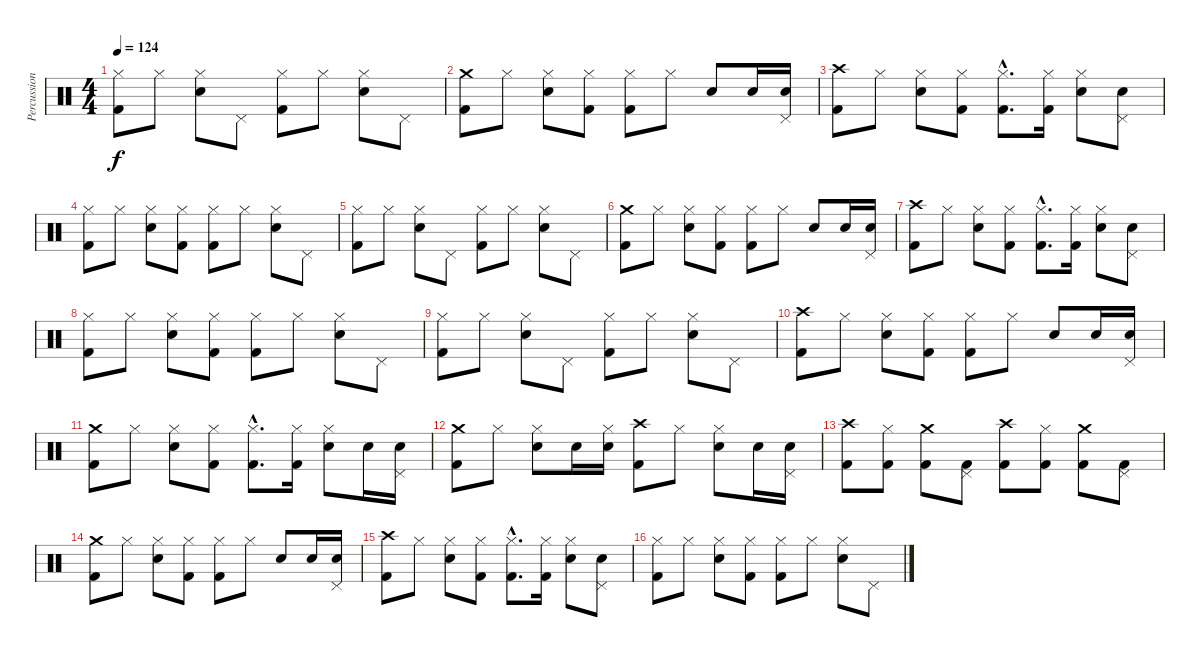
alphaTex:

\track ("Percussions" "Percussion") {instrument percussion}
\staff {score}
\articulation defaults
\ts (4 4)
\tempo 124
\clef neutral
\ks c
("Hi-Hat (closed)" "Kick (hit) 2").8{dy f} "Hi-Hat (closed)".8 ("Hi-Hat (closed)" "Electric Snare (hit)").8 "Pedal Hi-Hat (hit)".8 ("Hi-Hat (closed)" "Kick (hit) 2").8 "Hi-Hat (closed)".8 ("Hi-Hat (closed)" "Electric Snare (hit)").8 "Pedal Hi-Hat (hit)".8 |
("Crash medium (hit)" "Kick (hit) 2").8 "Hi-Hat (closed)".8 ("Hi-Hat (closed)" "Electric Snare (hit)").8 ("Hi-Hat (closed)" "Kick (hit) 2").8 ("Hi-Hat (closed)" "Kick (hit) 2").8 "Hi-Hat (closed)".8 "Electric Snare (hit)".8 "Electric Snare (hit)".16 ("Pedal Hi-Hat (hit)" "Electric Snare (hit)").16 |
("Crash high (hit)" "Kick (hit) 2").8 "Hi-Hat (closed)".8 ("Hi-Hat (closed)" "Electric Snare (hit)").8 ("Hi-Hat (closed)" "Kick (hit) 2").8 ("Hi-Hat (closed)"{hac} "Kick (hit) 2"{hac}).8{d} ("Hi-Hat (closed)" "Kick (hit) 2").16 ("Hi-Hat (closed)" "Electric Snare (hit)").8 ("Pedal Hi-Hat (hit)" "Electric Snare (hit)").8 |
("Hi-Hat (closed)" "Kick (hit) 2").8 "Hi-Hat (closed)".8 ("Hi-Hat (closed)" "Electric Snare (hit)").8 ("Hi-Hat (closed)" "Kick (hit) 2").8 ("Hi-Hat (closed)" "Kick (hit) 2").8 "Hi-Hat (closed)".8 ("Hi-Hat (closed)" "Electric Snare (hit)").8 "Pedal Hi-Hat (hit)".8 |
("Hi-Hat (closed)" "Kick (hit) 2").8 "Hi-Hat (closed)".8 ("Hi-Hat (closed)" "Electric Snare (hit)").8 "Pedal Hi-Hat (hit)".8 ("Hi-Hat (closed)" "Kick (hit) 2").8 "Hi-Hat (closed)".8 ("Hi-Hat (closed)" "Electric Snare (hit)").8 "Pedal Hi-Hat (hit)".8 |
("Crash medium (hit)" "Kick (hit) 2").8 "Hi-Hat (closed)".8 ("Hi-Hat (closed)" "Electric Snare (hit)").8 ("Hi-Hat (closed)" "Kick (hit) 2").8 ("Hi-Hat (closed)" "Kick (hit) 2").8 "Hi-Hat (closed)".8 "Electric Snare (hit)".8 "Electric Snare (hit)".16 ("Pedal Hi-Hat (hit)" "Electric Snare (hit)").16 |
("Crash high (hit)" "Kick (hit) 2").8 "Hi-Hat (closed)".8 ("Hi-Hat (closed)" "Electric Snare (hit)").8 ("Hi-Hat (closed)" "Kick (hit) 2").8 ("Hi-Hat (closed)"{hac} "Kick (hit) 2"{hac}).8{d} ("Hi-Hat (closed)" "Kick (hit) 2").16 ("Hi-Hat (closed)" "Electric Snare (hit)").8 ("Pedal Hi-Hat (hit)" "Electric Snare (hit)").8 |
("Hi-Hat (closed)" "Kick (hit) 2").8 "Hi-Hat (closed)".8 ("Hi-Hat (closed)" "Electric Snare (hit)").8 ("Hi-Hat (closed)" "Kick (hit) 2").8 ("Hi-Hat (closed)" "Kick (hit) 2").8 "Hi-Hat (closed)".8 ("Hi-Hat (closed)" "Electric Snare (hit)").8 "Pedal Hi-Hat (hit)".8 |
("Hi-Hat (closed)" "Kick (hit) 2").8 "Hi-Hat (closed)".8 ("Hi-Hat (closed)" "Electric Snare (hit)").8 "Pedal Hi-Hat (hit)".8 ("Hi-Hat (closed)" "Kick (hit) 2").8 "Hi-Hat (closed)".8 ("Hi-Hat (closed)" "Electric Snare (hit)").8 "Pedal Hi-Hat (hit)".8 |
("Crash high (hit)" "Kick (hit) 2").8 "Hi-Hat (closed)".8 ("Hi-Hat (closed)" "Electric Snare (hit)").8 ("Hi-Hat (closed)" "Kick (hit) 2").8 ("Hi-Hat (closed)" "Kick (hit) 2").8 "Hi-Hat (closed)".8 "Electric Snare (hit)".8 "Electric Snare (hit)".16 ("Pedal Hi-Hat (hit)" "Electric Snare (hit)").16 |
("Crash medium (hit)" "Kick (hit) 2").8 "Hi-Hat (closed)".8 ("Hi-Hat (closed)" "Electric Snare (hit)").8 ("Hi-Hat (closed)" "Kick (hit) 2").8 ("Hi-Hat (closed)"{hac} "Kick (hit) 2"{hac}).8{d} ("Hi-Hat (closed)" "Kick (hit) 2").16 ("Hi-Hat (closed)" "Electric Snare (hit)").8 "Electric Snare (hit)".16 ("Pedal Hi-Hat (hit)" "Electric Snare (hit)").16 |
("Crash medium (hit)" "Kick (hit) 2").8 "Hi-Hat (closed)".8 ("Hi-Hat (closed)" "Electric Snare (hit)").8 "Electric Snare (hit)".16 ("Hi-Hat (closed)" "Electric Snare (hit)").16 ("Crash high (hit)" "Kick (hit) 2").8 "Hi-Hat (closed)".8 ("Hi-Hat (closed)" "Electric Snare (hit)").8 "Electric Snare (hit)".16 ("Pedal Hi-Hat (hit)" "Electric Snare (hit)").16 |
("Crash high (hit)" "Kick (hit) 2").8 ("Hi-Hat (closed)" "Kick (hit) 2").8 ("Crash medium (hit)" "Kick (hit) 2").8 ("Pedal Hi-Hat (hit)" "Kick (hit) 2").8 ("Crash high (hit)" "Kick (hit) 2").8 ("Hi-Hat (closed)" "Kick (hit) 2").8 ("Crash medium (hit)" "Kick (hit) 2").8 ("Pedal Hi-Hat (hit)" "Kick (hit) 2").8 |
("Crash medium (hit)" "Kick (hit) 2").8 "Hi-Hat (closed)".8 ("Hi-Hat (closed)" "Electric Snare (hit)").8 ("Hi-Hat (closed)" "Kick (hit) 2").8 ("Hi-Hat (closed)" "Kick (hit) 2").8 "Hi-Hat (closed)".8 "Electric Snare (hit)".8 "Electric Snare (hit)".16 ("Pedal Hi-Hat (hit)" "Electric Snare (hit)").16 |
("Crash high (hit)" "Kick (hit) 2").8 "Hi-Hat (closed)".8 ("Hi-Hat (closed)" "Electric Snare (hit)").8 ("Hi-Hat (closed)" "Kick (hit) 2").8 ("Hi-Hat (closed)"{hac} "Kick (hit) 2"{hac}).8{d} ("Hi-Hat (closed)" "Kick (hit) 2").16 ("Hi-Hat (closed)" "Electric Snare (hit)").8 ("Pedal Hi-Hat (hit)" "Electric Snare (hit)").8 |
("Hi-Hat (closed)" "Kick (hit) 2").8 "Hi-Hat (closed)".8 ("Hi-Hat (closed)" "Electric Snare (hit)").8 ("Hi-Hat (closed)" "Kick (hit) 2").8 ("Hi-Hat (closed)" "Kick (hit) 2").8 "Hi-Hat (closed)".8 ("Hi-Hat (closed)" "Electric Snare (hit)").8 "Pedal Hi-Hat (hit)".8
